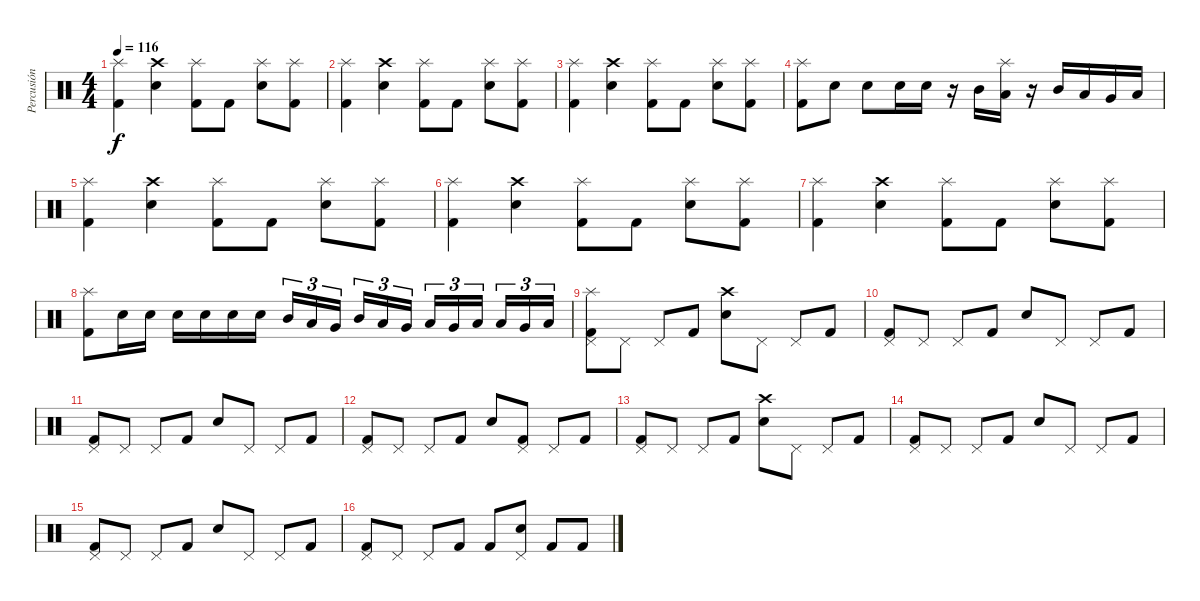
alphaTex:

\track ("Percusión" "Percusión") {instrument percussion}
\staff {score}
\articulation defaults
\ts (4 4)
\tempo 116
\clef neutral
\ks c
("Splash (hit)" "Kick (hit) 2").4{dy f} ("Crash high (hit)" "Snare (hit) 2").4 ("Splash (hit)" "Kick (hit) 2").8 "Kick (hit) 2".8 ("Splash (hit)" "Snare (hit) 2").8 ("Splash (hit)" "Kick (hit) 2").8 |
("Splash (hit)" "Kick (hit) 2").4 ("Crash high (hit)" "Snare (hit) 2").4 ("Splash (hit)" "Kick (hit) 2").8 "Kick (hit) 2".8 ("Splash (hit)" "Snare (hit) 2").8 ("Splash (hit)" "Kick (hit) 2").8 |
("Splash (hit)" "Kick (hit) 2").4 ("Crash high (hit)" "Snare (hit) 2").4 ("Splash (hit)" "Kick (hit) 2").8 "Kick (hit) 2".8 ("Splash (hit)" "Snare (hit) 2").8 ("Splash (hit)" "Kick (hit) 2").8 |
("Splash (hit)" "Kick (hit) 2").8 "Snare (hit) 2".8 "Snare (hit) 2".8 "Snare (hit) 2".16 "Snare (hit) 2".16 r.16 "Mid Tom (hit)".16 ("Low Tom (hit)" "Splash (hit)").16 r.16 "Mid Tom (hit)".16 "Low Tom (hit)".16 "Very Low Tom (hit)".16 "Low Floor Tom (hit)".16 |
("Splash (hit)" "Kick (hit) 2").4 ("Crash high (hit)" "Snare (hit) 2").4 ("Splash (hit)" "Kick (hit) 2").8 "Kick (hit) 2".8 ("Splash (hit)" "Snare (hit) 2").8 ("Splash (hit)" "Kick (hit) 2").8 |
("Splash (hit)" "Kick (hit) 2").4 ("Crash high (hit)" "Snare (hit) 2").4 ("Splash (hit)" "Kick (hit) 2").8 "Kick (hit) 2".8 ("Splash (hit)" "Snare (hit) 2").8 ("Splash (hit)" "Kick (hit) 2").8 |
("Splash (hit)" "Kick (hit) 2").4 ("Crash high (hit)" "Snare (hit) 2").4 ("Splash (hit)" "Kick (hit) 2").8 "Kick (hit) 2".8 ("Splash (hit)" "Snare (hit) 2").8 ("Splash (hit)" "Kick (hit) 2").8 |
("Splash (hit)" "Kick (hit) 2").8 "Snare (hit) 2".16 "Snare (hit) 2".16 "Snare (hit) 2".16 "Snare (hit) 2".16 "Snare (hit) 2".16 "Snare (hit) 2".16 "Mid Tom (hit)".16{tu (3 2)} "Low Tom (hit)".16{tu (3 2)} "Very Low Tom (hit)".16{tu (3 2)} "Mid Tom (hit)".16{tu (3 2)} "Low Tom (hit)".16{tu (3 2)} "Very Low Tom (hit)".16{tu (3 2)} "Low Tom (hit)".16{tu (3 2)} "Very Low Tom (hit)".16{tu (3 2)} "Low Floor Tom (hit)".16{tu (3 2)} "Low Tom (hit)".16{tu (3 2)} "Very Low Tom (hit)".16{tu (3 2)} "Low Floor Tom (hit)".16{tu (3 2)} |
("Splash (hit)" "Kick (hit) 2" "Pedal Hi-Hat (hit)").8 "Pedal Hi-Hat (hit)".8 "Pedal Hi-Hat (hit)".8 "Kick (hit) 2".8 ("Crash high (hit)" "Snare (hit) 2").8 "Pedal Hi-Hat (hit)".8 "Pedal Hi-Hat (hit)".8 "Kick (hit) 2".8 |
("Kick (hit) 2" "Pedal Hi-Hat (hit)").8 "Pedal Hi-Hat (hit)".8 "Pedal Hi-Hat (hit)".8 "Kick (hit) 2".8 "Snare (hit) 2".8 "Pedal Hi-Hat (hit)".8 "Pedal Hi-Hat (hit)".8 "Kick (hit) 2".8 |
("Kick (hit) 2" "Pedal Hi-Hat (hit)").8 "Pedal Hi-Hat (hit)".8 "Pedal Hi-Hat (hit)".8 "Kick (hit) 2".8 "Snare (hit) 2".8 "Pedal Hi-Hat (hit)".8 "Pedal Hi-Hat (hit)".8 "Kick (hit) 2".8 |
("Kick (hit) 2" "Pedal Hi-Hat (hit)").8 "Pedal Hi-Hat (hit)".8 "Pedal Hi-Hat (hit)".8 "Kick (hit) 2".8 "Snare (hit) 2".8 ("Kick (hit) 2" "Pedal Hi-Hat (hit)").8 "Pedal Hi-Hat (hit)".8 "Kick (hit) 2".8 |
("Kick (hit) 2" "Pedal Hi-Hat (hit)").8 "Pedal Hi-Hat (hit)".8 "Pedal Hi-Hat (hit)".8 "Kick (hit) 2".8 ("Crash high (hit)" "Snare (hit) 2").8 "Pedal Hi-Hat (hit)".8 "Pedal Hi-Hat (hit)".8 "Kick (hit) 2".8 |
("Kick (hit) 2" "Pedal Hi-Hat (hit)").8 "Pedal Hi-Hat (hit)".8 "Pedal Hi-Hat (hit)".8 "Kick (hit) 2".8 "Snare (hit) 2".8 "Pedal Hi-Hat (hit)".8 "Pedal Hi-Hat (hit)".8 "Kick (hit) 2".8 |
("Kick (hit) 2" "Pedal Hi-Hat (hit)").8 "Pedal Hi-Hat (hit)".8 "Pedal Hi-Hat (hit)".8 "Kick (hit) 2".8 "Snare (hit) 2".8 "Pedal Hi-Hat (hit)".8 "Pedal Hi-Hat (hit)".8 "Kick (hit) 2".8 |
("Kick (hit) 2" "Pedal Hi-Hat (hit)").8 "Pedal Hi-Hat (hit)".8 "Pedal Hi-Hat (hit)".8 "Kick (hit) 2".8 "Kick (hit) 2".8 ("Snare (hit) 2" "Pedal Hi-Hat (hit)").8 "Kick (hit) 2".8 "Kick (hit) 2".8
